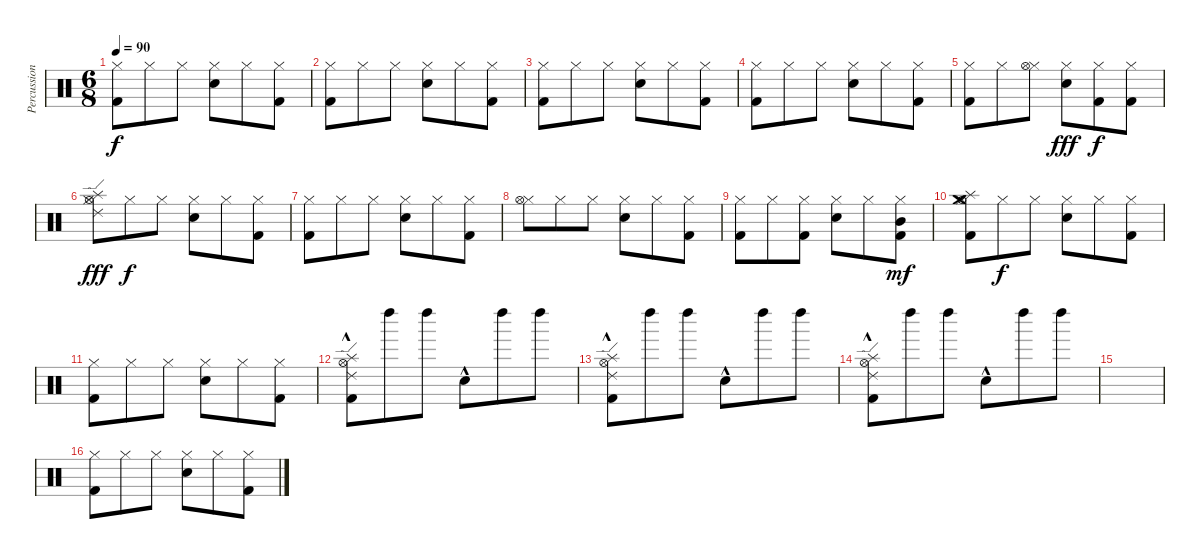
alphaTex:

\track ("Percussion" "Percussion") {instrument percussion}
\staff {score}
\articulation defaults
\ts (6 8)
\tempo 90
\clef neutral
\ks c
("Hi-Hat (closed)" "Kick (hit) 2").8{dy f} "Hi-Hat (closed)".8 "Hi-Hat (closed)".8 ("Hi-Hat (closed)" "Snare (hit) 2").8 "Hi-Hat (closed)".8 ("Hi-Hat (closed)" "Kick (hit) 2").8 |
("Hi-Hat (closed)" "Kick (hit) 2").8 "Hi-Hat (closed)".8 "Hi-Hat (closed)".8 ("Hi-Hat (closed)" "Snare (hit) 2").8 "Hi-Hat (closed)".8 ("Hi-Hat (closed)" "Kick (hit) 2").8 |
("Hi-Hat (closed)" "Kick (hit) 2").8 "Hi-Hat (closed)".8 "Hi-Hat (closed)".8 ("Hi-Hat (closed)" "Snare (hit) 2").8 "Hi-Hat (closed)".8 ("Hi-Hat (closed)" "Kick (hit) 2").8 |
("Hi-Hat (closed)" "Kick (hit) 2").8 "Hi-Hat (closed)".8 "Hi-Hat (closed)".8 ("Hi-Hat (closed)" "Snare (hit) 2").8 "Hi-Hat (closed)".8 ("Hi-Hat (closed)" "Kick (hit) 2").8 |
("Hi-Hat (closed)" "Kick (hit) 2").8 "Hi-Hat (closed)".8 ("Hi-Hat (closed)" "Hi-Hat (open)").8 ("Hi-Hat (closed)" "Snare (hit) 2").8{dy fff} ("Hi-Hat (closed)" "Kick (hit) 2").8{dy f} ("Hi-Hat (closed)" "Kick (hit) 2").8 |
("Hi-Hat (closed)" "Hi-Hat (open)" "Splash (hit)" "Ride (edge) 2").8{dy fff} "Hi-Hat (closed)".8{dy f} "Hi-Hat (closed)".8 ("Hi-Hat (closed)" "Snare (hit) 2").8 "Hi-Hat (closed)".8 ("Hi-Hat (closed)" "Kick (hit) 2").8 |
("Hi-Hat (closed)" "Kick (hit) 2").8 "Hi-Hat (closed)".8 "Hi-Hat (closed)".8 ("Hi-Hat (closed)" "Snare (hit) 2").8 "Hi-Hat (closed)".8 ("Hi-Hat (closed)" "Kick (hit) 2").8 |
("Hi-Hat (closed)" "Hi-Hat (open)").8 "Hi-Hat (closed)".8 "Hi-Hat (closed)".8 ("Hi-Hat (closed)" "Snare (hit) 2").8 "Hi-Hat (closed)".8 ("Hi-Hat (closed)" "Kick (hit) 2").8 |
("Hi-Hat (closed)" "Kick (hit) 2").8 "Hi-Hat (closed)".8 ("Hi-Hat (closed)" "Kick (hit) 2").8 ("Hi-Hat (closed)" "Snare (hit) 2").8 "Hi-Hat (closed)".8 ("Hi-Hat (closed)" "Mid Tom (hit)" "Kick (hit) 2").8{dy mf} |
("Hi-Hat (closed)" "Hi-Hat (open)" "Splash (hit)" "Crash medium (hit)" "Kick (hit) 2").8 "Hi-Hat (closed)".8{dy f} "Hi-Hat (closed)".8 ("Hi-Hat (closed)" "Snare (hit) 2").8 "Hi-Hat (closed)".8 ("Hi-Hat (closed)" "Kick (hit) 2").8 |
("Hi-Hat (closed)" "Kick (hit) 2").8 "Hi-Hat (closed)".8 "Hi-Hat (closed)".8 ("Hi-Hat (closed)" "Snare (hit) 2").8 "Hi-Hat (closed)".8 ("Hi-Hat (closed)" "Kick (hit) 2").8 |
("Hi-Hat (open)" "Splash (hit)" "Ride (edge) 2" "Kick (hit) 2"{hac}).8 "Left Maraca (hit)".8 "Left Maraca (hit)".8 "Snare (hit) 2"{hac}.8 "Left Maraca (hit)".8 "Left Maraca (hit)".8 |
("Hi-Hat (open)" "Splash (hit)" "Ride (edge) 2" "Kick (hit) 2"{hac}).8 "Left Maraca (hit)".8 "Left Maraca (hit)".8 "Snare (hit) 2"{hac}.8 "Left Maraca (hit)".8 "Left Maraca (hit)".8 |
("Hi-Hat (open)" "Splash (hit)" "Ride (edge) 2" "Kick (hit) 2"{hac}).8 "Left Maraca (hit)".8 "Left Maraca (hit)".8 "Snare (hit) 2"{hac}.8 "Left Maraca (hit)".8 "Left Maraca (hit)".8 |
|
("Hi-Hat (closed)" "Kick (hit) 2").8 "Hi-Hat (closed)".8 "Hi-Hat (closed)".8 ("Hi-Hat (closed)" "Snare (hit) 2").8 "Hi-Hat (closed)".8 ("Hi-Hat (closed)" "Kick (hit) 2").8
